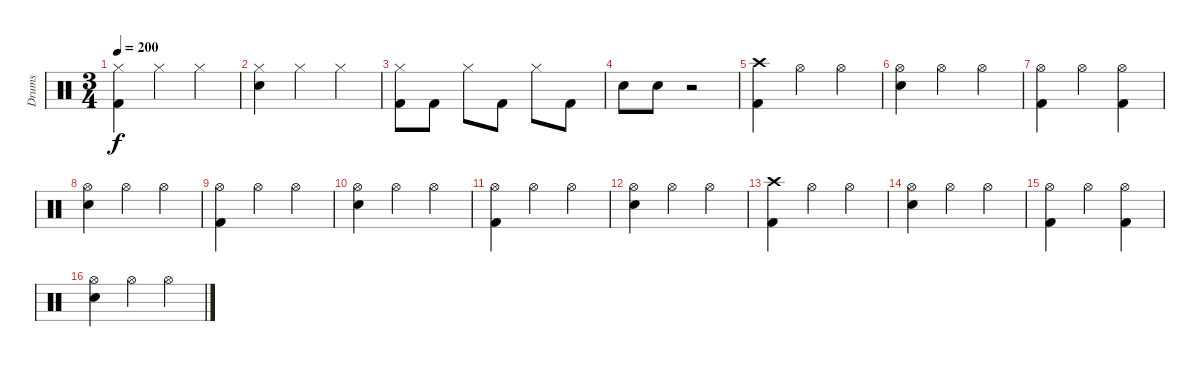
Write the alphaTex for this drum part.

\track ("Drums" "Drums") {instrument percussion}
\staff {score}
\articulation defaults
\ts (3 4)
\tempo 200
\clef neutral
\ks c
("Kick (hit) 2" "Hi-Hat (closed)").4{dy f} "Hi-Hat (closed)".4 "Hi-Hat (closed)".4 |
("Electric Snare (hit)" "Hi-Hat (closed)").4 "Hi-Hat (closed)".4 "Hi-Hat (closed)".4 |
("Kick (hit) 2" "Hi-Hat (closed)").8 "Kick (hit) 2".8 "Hi-Hat (closed)".8 "Kick (hit) 2".8 "Hi-Hat (closed)".8 "Kick (hit) 2".8 |
"Electric Snare (hit)".8 "Electric Snare (hit)".8 r.2 |
("Crash high (hit)" "Kick (hit) 2").4 "Hi-Hat (open)".4 "Hi-Hat (open)".4 |
("Hi-Hat (open)" "Electric Snare (hit)").4 "Hi-Hat (open)".4 "Hi-Hat (open)".4 |
("Hi-Hat (open)" "Kick (hit) 2").4 "Hi-Hat (open)".4 ("Hi-Hat (open)" "Kick (hit) 2").4 |
("Hi-Hat (open)" "Electric Snare (hit)").4 "Hi-Hat (open)".4 "Hi-Hat (open)".4 |
("Hi-Hat (open)" "Kick (hit) 2").4 "Hi-Hat (open)".4 "Hi-Hat (open)".4 |
("Hi-Hat (open)" "Electric Snare (hit)").4 "Hi-Hat (open)".4 "Hi-Hat (open)".4 |
("Hi-Hat (open)" "Kick (hit) 2").4 "Hi-Hat (open)".4 "Hi-Hat (open)".4 |
("Hi-Hat (open)" "Electric Snare (hit)").4 "Hi-Hat (open)".4 "Hi-Hat (open)".4 |
("Crash high (hit)" "Kick (hit) 2").4 "Hi-Hat (open)".4 "Hi-Hat (open)".4 |
("Hi-Hat (open)" "Electric Snare (hit)").4 "Hi-Hat (open)".4 "Hi-Hat (open)".4 |
("Hi-Hat (open)" "Kick (hit) 2").4 "Hi-Hat (open)".4 ("Hi-Hat (open)" "Kick (hit) 2").4 |
("Hi-Hat (open)" "Electric Snare (hit)").4 "Hi-Hat (open)".4 "Hi-Hat (open)".4
